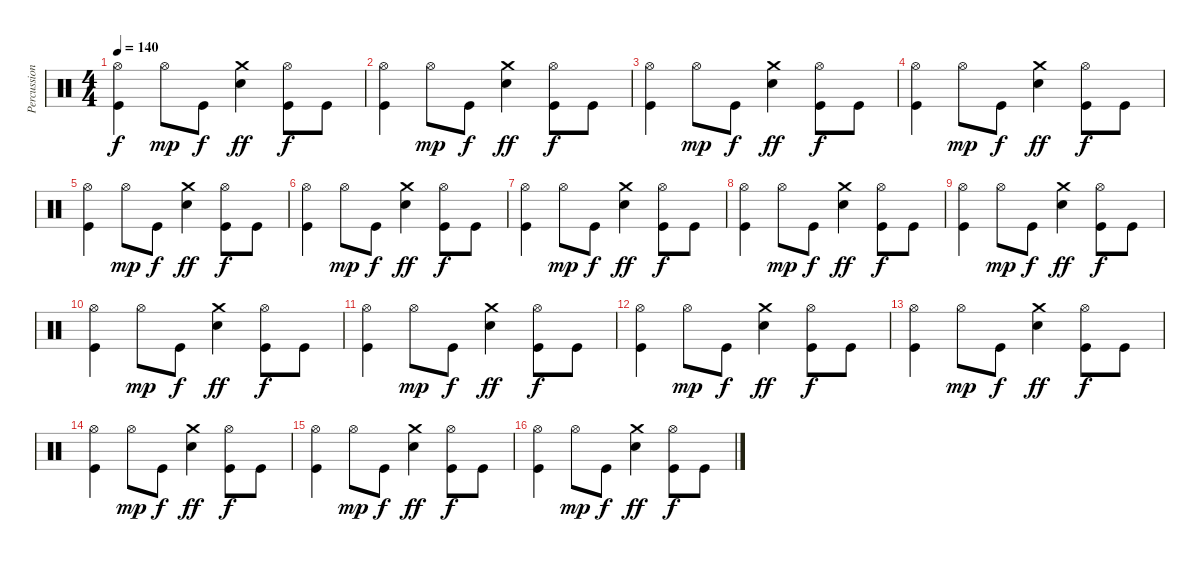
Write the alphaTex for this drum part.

\track ("Percussion" "Percussion") {instrument percussion}
\staff {score}
\articulation defaults
\ts (4 4)
\tempo 140
\clef neutral
\ks c
("Hi-Hat (open)" "Kick (hit)").4{dy f} "Hi-Hat (open)".8{dy mp} "Kick (hit)".8{dy f} ("Crash medium (hit)" "Electric Snare (hit)").4{dy ff} ("Hi-Hat (open)" "Kick (hit)").8{dy f} "Kick (hit)".8 |
("Hi-Hat (open)" "Kick (hit)").4 "Hi-Hat (open)".8{dy mp} "Kick (hit)".8{dy f} ("Crash medium (hit)" "Electric Snare (hit)").4{dy ff} ("Hi-Hat (open)" "Kick (hit)").8{dy f} "Kick (hit)".8 |
("Hi-Hat (open)" "Kick (hit)").4 "Hi-Hat (open)".8{dy mp} "Kick (hit)".8{dy f} ("Crash medium (hit)" "Electric Snare (hit)").4{dy ff} ("Hi-Hat (open)" "Kick (hit)").8{dy f} "Kick (hit)".8 |
("Hi-Hat (open)" "Kick (hit)").4 "Hi-Hat (open)".8{dy mp} "Kick (hit)".8{dy f} ("Crash medium (hit)" "Electric Snare (hit)").4{dy ff} ("Hi-Hat (open)" "Kick (hit)").8{dy f} "Kick (hit)".8 |
("Hi-Hat (open)" "Kick (hit)").4 "Hi-Hat (open)".8{dy mp} "Kick (hit)".8{dy f} ("Crash medium (hit)" "Electric Snare (hit)").4{dy ff} ("Hi-Hat (open)" "Kick (hit)").8{dy f} "Kick (hit)".8 |
("Hi-Hat (open)" "Kick (hit)").4 "Hi-Hat (open)".8{dy mp} "Kick (hit)".8{dy f} ("Crash medium (hit)" "Electric Snare (hit)").4{dy ff} ("Hi-Hat (open)" "Kick (hit)").8{dy f} "Kick (hit)".8 |
("Hi-Hat (open)" "Kick (hit)").4 "Hi-Hat (open)".8{dy mp} "Kick (hit)".8{dy f} ("Crash medium (hit)" "Electric Snare (hit)").4{dy ff} ("Hi-Hat (open)" "Kick (hit)").8{dy f} "Kick (hit)".8 |
("Hi-Hat (open)" "Kick (hit)").4 "Hi-Hat (open)".8{dy mp} "Kick (hit)".8{dy f} ("Crash medium (hit)" "Electric Snare (hit)").4{dy ff} ("Hi-Hat (open)" "Kick (hit)").8{dy f} "Kick (hit)".8 |
("Hi-Hat (open)" "Kick (hit)").4 "Hi-Hat (open)".8{dy mp} "Kick (hit)".8{dy f} ("Crash medium (hit)" "Electric Snare (hit)").4{dy ff} ("Hi-Hat (open)" "Kick (hit)").8{dy f} "Kick (hit)".8 |
("Hi-Hat (open)" "Kick (hit)").4 "Hi-Hat (open)".8{dy mp} "Kick (hit)".8{dy f} ("Crash medium (hit)" "Electric Snare (hit)").4{dy ff} ("Hi-Hat (open)" "Kick (hit)").8{dy f} "Kick (hit)".8 |
("Hi-Hat (open)" "Kick (hit)").4 "Hi-Hat (open)".8{dy mp} "Kick (hit)".8{dy f} ("Crash medium (hit)" "Electric Snare (hit)").4{dy ff} ("Hi-Hat (open)" "Kick (hit)").8{dy f} "Kick (hit)".8 |
("Hi-Hat (open)" "Kick (hit)").4 "Hi-Hat (open)".8{dy mp} "Kick (hit)".8{dy f} ("Crash medium (hit)" "Electric Snare (hit)").4{dy ff} ("Hi-Hat (open)" "Kick (hit)").8{dy f} "Kick (hit)".8 |
("Hi-Hat (open)" "Kick (hit)").4 "Hi-Hat (open)".8{dy mp} "Kick (hit)".8{dy f} ("Crash medium (hit)" "Electric Snare (hit)").4{dy ff} ("Hi-Hat (open)" "Kick (hit)").8{dy f} "Kick (hit)".8 |
("Hi-Hat (open)" "Kick (hit)").4 "Hi-Hat (open)".8{dy mp} "Kick (hit)".8{dy f} ("Crash medium (hit)" "Electric Snare (hit)").4{dy ff} ("Hi-Hat (open)" "Kick (hit)").8{dy f} "Kick (hit)".8 |
("Hi-Hat (open)" "Kick (hit)").4 "Hi-Hat (open)".8{dy mp} "Kick (hit)".8{dy f} ("Crash medium (hit)" "Electric Snare (hit)").4{dy ff} ("Hi-Hat (open)" "Kick (hit)").8{dy f} "Kick (hit)".8 |
("Hi-Hat (open)" "Kick (hit)").4 "Hi-Hat (open)".8{dy mp} "Kick (hit)".8{dy f} ("Crash medium (hit)" "Electric Snare (hit)").4{dy ff} ("Hi-Hat (open)" "Kick (hit)").8{dy f} "Kick (hit)".8
